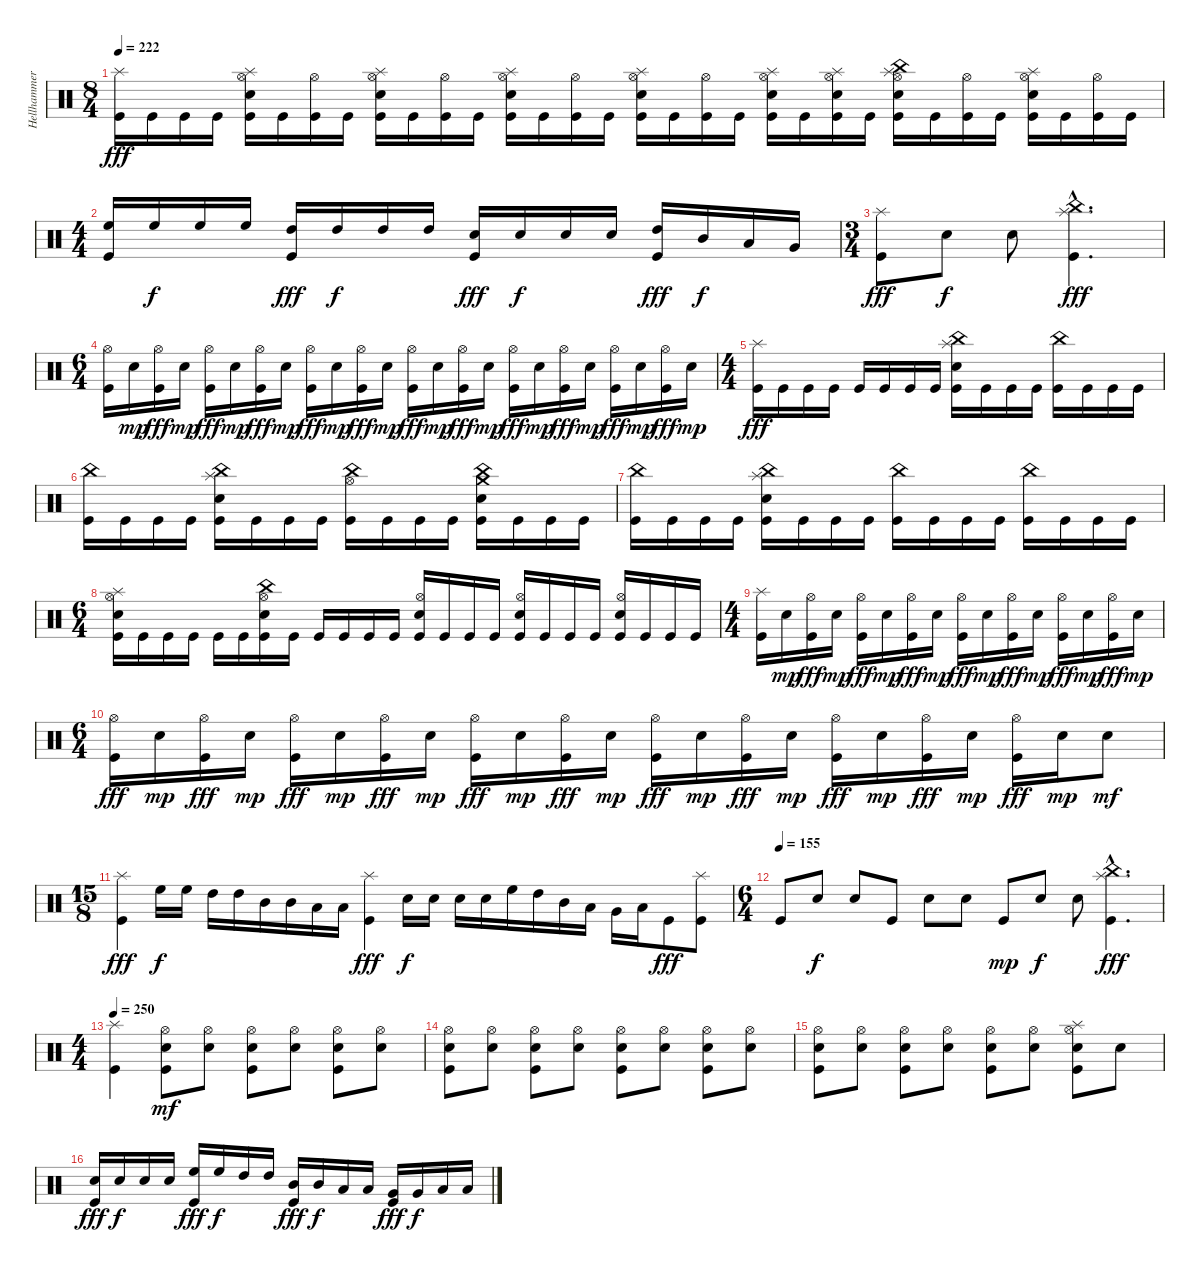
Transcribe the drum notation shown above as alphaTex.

\track ("Hellhammer" "Hellhammer") {instrument percussion}
\staff {score}
\articulation defaults
\ts (8 4)
\tempo 222
\clef neutral
\ks c
("Splash (hit)" "Kick (hit)").16{dy fff} "Kick (hit)".16 "Kick (hit)".16 "Kick (hit)".16 ("Splash (hit)" "Hi-Hat (open)" "Electric Snare (hit)" "Kick (hit)").16 "Kick (hit)".16 ("Hi-Hat (open)" "Kick (hit)").16 "Kick (hit)".16 ("Splash (hit)" "Hi-Hat (open)" "Electric Snare (hit)" "Kick (hit)").16 "Kick (hit)".16 ("Hi-Hat (open)" "Kick (hit)").16 "Kick (hit)".16 ("Splash (hit)" "Hi-Hat (open)" "Electric Snare (hit)" "Kick (hit)").16 "Kick (hit)".16 ("Hi-Hat (open)" "Kick (hit)").16 "Kick (hit)".16 ("Splash (hit)" "Hi-Hat (open)" "Electric Snare (hit)" "Kick (hit)").16 "Kick (hit)".16 ("Hi-Hat (open)" "Kick (hit)").16 "Kick (hit)".16 ("Splash (hit)" "Hi-Hat (open)" "Electric Snare (hit)" "Kick (hit)").16 "Kick (hit)".16 ("Splash (hit)" "Hi-Hat (open)" "Electric Snare (hit)" "Kick (hit)").16 "Kick (hit)".16 ("China (hit)" "Splash (hit)" "Hi-Hat (open)" "Electric Snare (hit)" "Kick (hit)").16 "Kick (hit)".16 ("Hi-Hat (open)" "Kick (hit)").16 "Kick (hit)".16 ("Splash (hit)" "Hi-Hat (open)" "Electric Snare (hit)" "Kick (hit)").16 "Kick (hit)".16 ("Hi-Hat (open)" "Kick (hit)").16 "Kick (hit)".16 |
\ts (4 4)
("High Floor Tom (hit)" "Kick (hit)").16 "High Floor Tom (hit)".16{dy f} "High Floor Tom (hit)".16 "High Floor Tom (hit)".16 ("High Tom (hit)" "Kick (hit)").16{dy fff} "High Tom (hit)".16{dy f} "High Tom (hit)".16 "High Tom (hit)".16 ("Electric Snare (hit)" "Kick (hit)").16{dy fff} "Electric Snare (hit)".16{dy f} "Electric Snare (hit)".16 "Electric Snare (hit)".16 ("High Tom (hit)" "Kick (hit)").16{dy fff} "Mid Tom (hit)".16{dy f} "Low Tom (hit)".16 "Very Low Tom (hit)".16 |
\ts (3 4)
("Splash (hit)" "Kick (hit)").8{dy fff} "Electric Snare (hit)".8{dy f} "Electric Snare (hit)".8 ("Splash (hit)"{hac} "China (hit)"{hac} "Kick (hit)"{hac}).4{d dy fff} |
\ts (6 4)
("Hi-Hat (open)" "Kick (hit)").16 "Electric Snare (hit)".16{dy mp} ("Hi-Hat (open)" "Kick (hit)").16{dy fff} "Electric Snare (hit)".16{dy mp} ("Hi-Hat (open)" "Kick (hit)").16{dy fff} "Electric Snare (hit)".16{dy mp} ("Hi-Hat (open)" "Kick (hit)").16{dy fff} "Electric Snare (hit)".16{dy mp} ("Hi-Hat (open)" "Kick (hit)").16{dy fff} "Electric Snare (hit)".16{dy mp} ("Hi-Hat (open)" "Kick (hit)").16{dy fff} "Electric Snare (hit)".16{dy mp} ("Hi-Hat (open)" "Kick (hit)").16{dy fff} "Electric Snare (hit)".16{dy mp} ("Hi-Hat (open)" "Kick (hit)").16{dy fff} "Electric Snare (hit)".16{dy mp} ("Hi-Hat (open)" "Kick (hit)").16{dy fff} "Electric Snare (hit)".16{dy mp} ("Hi-Hat (open)" "Kick (hit)").16{dy fff} "Electric Snare (hit)".16{dy mp} ("Hi-Hat (open)" "Kick (hit)").16{dy fff} "Electric Snare (hit)".16{dy mp} ("Hi-Hat (open)" "Kick (hit)").16{dy fff} "Electric Snare (hit)".16{dy mp} |
\ts (4 4)
("Splash (hit)" "Kick (hit)").16{dy fff} "Kick (hit)".16 "Kick (hit)".16 "Kick (hit)".16 "Kick (hit)".16 "Kick (hit)".16 "Kick (hit)".16 "Kick (hit)".16 ("Splash (hit)" "China (hit)" "Electric Snare (hit)" "Kick (hit)").16 "Kick (hit)".16 "Kick (hit)".16 "Kick (hit)".16 ("China (hit)" "Kick (hit)").16 "Kick (hit)".16 "Kick (hit)".16 "Kick (hit)".16 |
("China (hit)" "Kick (hit)").16 "Kick (hit)".16 "Kick (hit)".16 "Kick (hit)".16 ("Splash (hit)" "China (hit)" "Electric Snare (hit)" "Kick (hit)").16 "Kick (hit)".16 "Kick (hit)".16 "Kick (hit)".16 ("China (hit)" "Hi-Hat (open)" "Kick (hit)").16 "Kick (hit)".16 "Kick (hit)".16 "Kick (hit)".16 ("Crash medium (hit)" "China (hit)" "Electric Snare (hit)" "Kick (hit)").16 "Kick (hit)".16 "Kick (hit)".16 "Kick (hit)".16 |
("China (hit)" "Kick (hit)").16 "Kick (hit)".16 "Kick (hit)".16 "Kick (hit)".16 ("Splash (hit)" "China (hit)" "Electric Snare (hit)" "Kick (hit)").16 "Kick (hit)".16 "Kick (hit)".16 "Kick (hit)".16 ("China (hit)" "Kick (hit)").16 "Kick (hit)".16 "Kick (hit)".16 "Kick (hit)".16 ("China (hit)" "Kick (hit)").16 "Kick (hit)".16 "Kick (hit)".16 "Kick (hit)".16 |
\ts (6 4)
("Splash (hit)" "Hi-Hat (open)" "Electric Snare (hit)" "Kick (hit)").16 "Kick (hit)".16 "Kick (hit)".16 "Kick (hit)".16 "Kick (hit)".16 "Kick (hit)".16 ("China (hit)" "Hi-Hat (open)" "Electric Snare (hit)" "Kick (hit)").16 "Kick (hit)".16 "Kick (hit)".16 "Kick (hit)".16 "Kick (hit)".16 "Kick (hit)".16 ("Hi-Hat (open)" "Electric Snare (hit)" "Kick (hit)").16 "Kick (hit)".16 "Kick (hit)".16 "Kick (hit)".16 ("Hi-Hat (open)" "Electric Snare (hit)" "Kick (hit)").16 "Kick (hit)".16 "Kick (hit)".16 "Kick (hit)".16 ("Hi-Hat (open)" "Electric Snare (hit)" "Kick (hit)").16 "Kick (hit)".16 "Kick (hit)".16 "Kick (hit)".16 |
\ts (4 4)
("Splash (hit)" "Kick (hit)").16 "Electric Snare (hit)".16{dy mp} ("Hi-Hat (open)" "Kick (hit)").16{dy fff} "Electric Snare (hit)".16{dy mp} ("Hi-Hat (open)" "Kick (hit)").16{dy fff} "Electric Snare (hit)".16{dy mp} ("Hi-Hat (open)" "Kick (hit)").16{dy fff} "Electric Snare (hit)".16{dy mp} ("Hi-Hat (open)" "Kick (hit)").16{dy fff} "Electric Snare (hit)".16{dy mp} ("Hi-Hat (open)" "Kick (hit)").16{dy fff} "Electric Snare (hit)".16{dy mp} ("Hi-Hat (open)" "Kick (hit)").16{dy fff} "Electric Snare (hit)".16{dy mp} ("Hi-Hat (open)" "Kick (hit)").16{dy fff} "Electric Snare (hit)".16{dy mp} |
\ts (6 4)
("Hi-Hat (open)" "Kick (hit)").16{dy fff} "Electric Snare (hit)".16{dy mp} ("Hi-Hat (open)" "Kick (hit)").16{dy fff} "Electric Snare (hit)".16{dy mp} ("Hi-Hat (open)" "Kick (hit)").16{dy fff} "Electric Snare (hit)".16{dy mp} ("Hi-Hat (open)" "Kick (hit)").16{dy fff} "Electric Snare (hit)".16{dy mp} ("Hi-Hat (open)" "Kick (hit)").16{dy fff} "Electric Snare (hit)".16{dy mp} ("Hi-Hat (open)" "Kick (hit)").16{dy fff} "Electric Snare (hit)".16{dy mp} ("Hi-Hat (open)" "Kick (hit)").16{dy fff} "Electric Snare (hit)".16{dy mp} ("Hi-Hat (open)" "Kick (hit)").16{dy fff} "Electric Snare (hit)".16{dy mp} ("Hi-Hat (open)" "Kick (hit)").16{dy fff} "Electric Snare (hit)".16{dy mp} ("Hi-Hat (open)" "Kick (hit)").16{dy fff} "Electric Snare (hit)".16{dy mp} ("Hi-Hat (open)" "Kick (hit)").16{dy fff} "Electric Snare (hit)".16{dy mp} "Electric Snare (hit)".8{dy mf} |
\ts (15 8)
("Splash (hit)" "Kick (hit)").4{dy fff} "High Floor Tom (hit)".16{dy f} "High Floor Tom (hit)".16 "High Tom (hit)".16 "High Tom (hit)".16 "Mid Tom (hit)".16 "Mid Tom (hit)".16 "Low Tom (hit)".16 "Low Tom (hit)".16 ("Splash (hit)" "Kick (hit)").4{dy fff} "Snare (hit) 2".16{dy f} "Snare (hit) 2".16 "Snare (hit) 2".16 "Snare (hit) 2".16 "High Floor Tom (hit)".16 "High Tom (hit)".16 "Mid Tom (hit)".16 "Low Tom (hit)".16 "Very Low Tom (hit)".16 "Low Floor Tom (hit)".16 "Kick (hit)".8{dy fff} ("Splash (hit)" "Kick (hit)").8 |
\ts (6 4)
\tempo (155)
"Kick (hit)".8 "Snare (hit)".8{dy f} "Snare (hit)".8 "Kick (hit)".8 "Snare (hit)".8 "Snare (hit)".8 "Kick (hit)".8{dy mp} "Snare (hit)".8{dy f} "Snare (hit)".8 ("China (hit)"{hac} "Splash (hit)"{hac} "Kick (hit)"{hac}).4{d dy fff} |
\ts (4 4)
\tempo 250
("Splash (hit)" "Kick (hit)").4 ("Hi-Hat (open)" "Kick (hit)" "Electric Snare (hit)").8{dy mf} ("Hi-Hat (open)" "Electric Snare (hit)").8 ("Hi-Hat (open)" "Kick (hit)" "Electric Snare (hit)").8 ("Hi-Hat (open)" "Electric Snare (hit)").8 ("Hi-Hat (open)" "Kick (hit)" "Electric Snare (hit)").8 ("Hi-Hat (open)" "Electric Snare (hit)").8 |
("Hi-Hat (open)" "Kick (hit)" "Electric Snare (hit)").8 ("Hi-Hat (open)" "Electric Snare (hit)").8 ("Hi-Hat (open)" "Kick (hit)" "Electric Snare (hit)").8 ("Hi-Hat (open)" "Electric Snare (hit)").8 ("Hi-Hat (open)" "Kick (hit)" "Electric Snare (hit)").8 ("Hi-Hat (open)" "Electric Snare (hit)").8 ("Hi-Hat (open)" "Kick (hit)" "Electric Snare (hit)").8 ("Hi-Hat (open)" "Electric Snare (hit)").8 |
("Hi-Hat (open)" "Kick (hit)" "Electric Snare (hit)").8 ("Hi-Hat (open)" "Electric Snare (hit)").8 ("Hi-Hat (open)" "Kick (hit)" "Electric Snare (hit)").8 ("Hi-Hat (open)" "Electric Snare (hit)").8 ("Hi-Hat (open)" "Kick (hit)" "Electric Snare (hit)").8 ("Hi-Hat (open)" "Electric Snare (hit)").8 ("Hi-Hat (open)" "Splash (hit)" "Kick (hit)" "Electric Snare (hit)").8 "Electric Snare (hit)".8 |
("Kick (hit)" "Snare (hit) 2").16{dy fff} "Snare (hit) 2".16{dy f} "Snare (hit) 2".16 "Snare (hit) 2".16 ("Kick (hit)" "High Floor Tom (hit)").16{dy fff} "High Floor Tom (hit)".16{dy f} "High Tom (hit)".16 "High Tom (hit)".16 ("Kick (hit)" "Mid Tom (hit)").16{dy fff} "Mid Tom (hit)".16{dy f} "Low Tom (hit)".16 "Low Tom (hit)".16 ("Kick (hit)" "Very Low Tom (hit)").16{dy fff} "Very Low Tom (hit)".16{dy f} "Low Floor Tom (hit)".16 "Low Floor Tom (hit)".16
